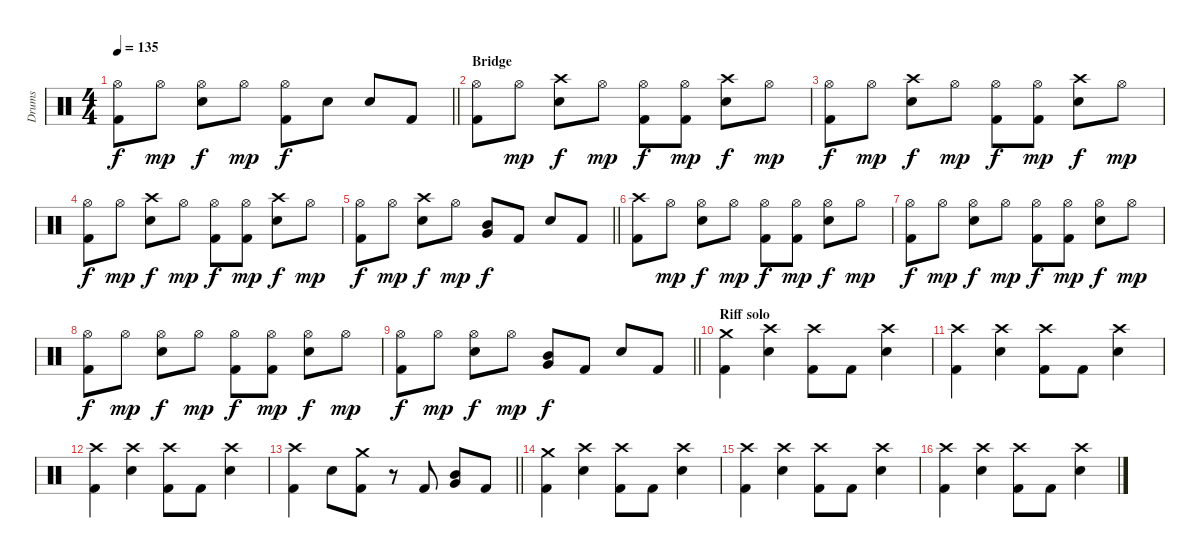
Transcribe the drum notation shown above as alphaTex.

\track ("Drums" "Drums") {instrument percussion}
\staff {score}
\articulation defaults
\ts (4 4)
\tempo 135
\clef neutral
\barLineRight lightlight
\ks aminor
("Hi-Hat (open)" "Kick (hit) 2").8{dy f} "Hi-Hat (open)".8{dy mp} ("Hi-Hat (open)" "Electric Snare (hit)").8{dy f} "Hi-Hat (open)".8{dy mp} ("Hi-Hat (open)" "Kick (hit) 2").8{dy f} "Electric Snare (hit)".8 "Electric Snare (hit)".8 "Kick (hit) 2".8 |
\section ("" "Bridge")
("Hi-Hat (open)" "Kick (hit) 2").8 "Hi-Hat (open)".8{dy mp} ("Crash high (hit)" "Electric Snare (hit)").8{dy f} "Hi-Hat (open)".8{dy mp} ("Hi-Hat (open)" "Kick (hit) 2").8{dy f} ("Hi-Hat (open)" "Kick (hit) 2").8{dy mp} ("Crash high (hit)" "Electric Snare (hit)").8{dy f} "Hi-Hat (open)".8{dy mp} |
("Hi-Hat (open)" "Kick (hit) 2").8{dy f} "Hi-Hat (open)".8{dy mp} ("Crash high (hit)" "Electric Snare (hit)").8{dy f} "Hi-Hat (open)".8{dy mp} ("Hi-Hat (open)" "Kick (hit) 2").8{dy f} ("Hi-Hat (open)" "Kick (hit) 2").8{dy mp} ("Crash high (hit)" "Electric Snare (hit)").8{dy f} "Hi-Hat (open)".8{dy mp} |
("Hi-Hat (open)" "Kick (hit) 2").8{dy f} "Hi-Hat (open)".8{dy mp} ("Crash high (hit)" "Electric Snare (hit)").8{dy f} "Hi-Hat (open)".8{dy mp} ("Hi-Hat (open)" "Kick (hit) 2").8{dy f} ("Hi-Hat (open)" "Kick (hit) 2").8{dy mp} ("Crash high (hit)" "Electric Snare (hit)").8{dy f} "Hi-Hat (open)".8{dy mp} |
\barLineRight lightlight
("Hi-Hat (open)" "Kick (hit) 2").8{dy f} "Hi-Hat (open)".8{dy mp} ("Crash high (hit)" "Electric Snare (hit)").8{dy f} "Hi-Hat (open)".8{dy mp} ("Mid Tom (hit)" "Very Low Tom (hit)").8{dy f} "Kick (hit) 2".8 "Electric Snare (hit)".8 "Kick (hit) 2".8 |
("Crash high (hit)" "Kick (hit) 2").8 "Hi-Hat (open)".8{dy mp} ("Hi-Hat (open)" "Electric Snare (hit)").8{dy f} "Hi-Hat (open)".8{dy mp} ("Hi-Hat (open)" "Kick (hit) 2").8{dy f} ("Hi-Hat (open)" "Kick (hit) 2").8{dy mp} ("Hi-Hat (open)" "Electric Snare (hit)").8{dy f} "Hi-Hat (open)".8{dy mp} |
("Hi-Hat (open)" "Kick (hit) 2").8{dy f} "Hi-Hat (open)".8{dy mp} ("Hi-Hat (open)" "Electric Snare (hit)").8{dy f} "Hi-Hat (open)".8{dy mp} ("Hi-Hat (open)" "Kick (hit) 2").8{dy f} ("Hi-Hat (open)" "Kick (hit) 2").8{dy mp} ("Hi-Hat (open)" "Electric Snare (hit)").8{dy f} "Hi-Hat (open)".8{dy mp} |
("Hi-Hat (open)" "Kick (hit) 2").8{dy f} "Hi-Hat (open)".8{dy mp} ("Hi-Hat (open)" "Electric Snare (hit)").8{dy f} "Hi-Hat (open)".8{dy mp} ("Hi-Hat (open)" "Kick (hit) 2").8{dy f} ("Hi-Hat (open)" "Kick (hit) 2").8{dy mp} ("Hi-Hat (open)" "Electric Snare (hit)").8{dy f} "Hi-Hat (open)".8{dy mp} |
\barLineRight lightlight
("Hi-Hat (open)" "Kick (hit) 2").8{dy f} "Hi-Hat (open)".8{dy mp} ("Hi-Hat (open)" "Electric Snare (hit)").8{dy f} "Hi-Hat (open)".8{dy mp} ("Mid Tom (hit)" "Very Low Tom (hit)").8{dy f} "Kick (hit) 2".8 "Electric Snare (hit)".8 "Kick (hit) 2".8 |
\section ("" "Riff solo")
("Crash medium (hit)" "Kick (hit) 2").4 ("Crash high (hit)" "Electric Snare (hit)").4 ("Crash high (hit)" "Kick (hit) 2").8 "Kick (hit) 2".8 ("Crash high (hit)" "Electric Snare (hit)").4 |
("Crash high (hit)" "Kick (hit) 2").4 ("Crash high (hit)" "Electric Snare (hit)").4 ("Crash high (hit)" "Kick (hit) 2").8 "Kick (hit) 2".8 ("Crash high (hit)" "Electric Snare (hit)").4 |
("Crash high (hit)" "Kick (hit) 2").4 ("Crash high (hit)" "Electric Snare (hit)").4 ("Crash high (hit)" "Kick (hit) 2").8 "Kick (hit) 2".8 ("Crash high (hit)" "Electric Snare (hit)").4 |
\barLineRight lightlight
("Crash high (hit)" "Kick (hit) 2").4 "Electric Snare (hit)".8 ("Crash medium (hit)" "Kick (hit) 2").8 r.8 "Kick (hit) 2".8 ("Mid Tom (hit)" "Very Low Tom (hit)").8 "Kick (hit) 2".8 |
("Crash medium (hit)" "Kick (hit) 2").4 ("Crash high (hit)" "Electric Snare (hit)").4 ("Crash high (hit)" "Kick (hit) 2").8 "Kick (hit) 2".8 ("Crash high (hit)" "Electric Snare (hit)").4 |
("Crash high (hit)" "Kick (hit) 2").4 ("Crash high (hit)" "Electric Snare (hit)").4 ("Crash high (hit)" "Kick (hit) 2").8 "Kick (hit) 2".8 ("Crash high (hit)" "Electric Snare (hit)").4 |
("Crash high (hit)" "Kick (hit) 2").4 ("Crash high (hit)" "Electric Snare (hit)").4 ("Crash high (hit)" "Kick (hit) 2").8 "Kick (hit) 2".8 ("Crash high (hit)" "Electric Snare (hit)").4
